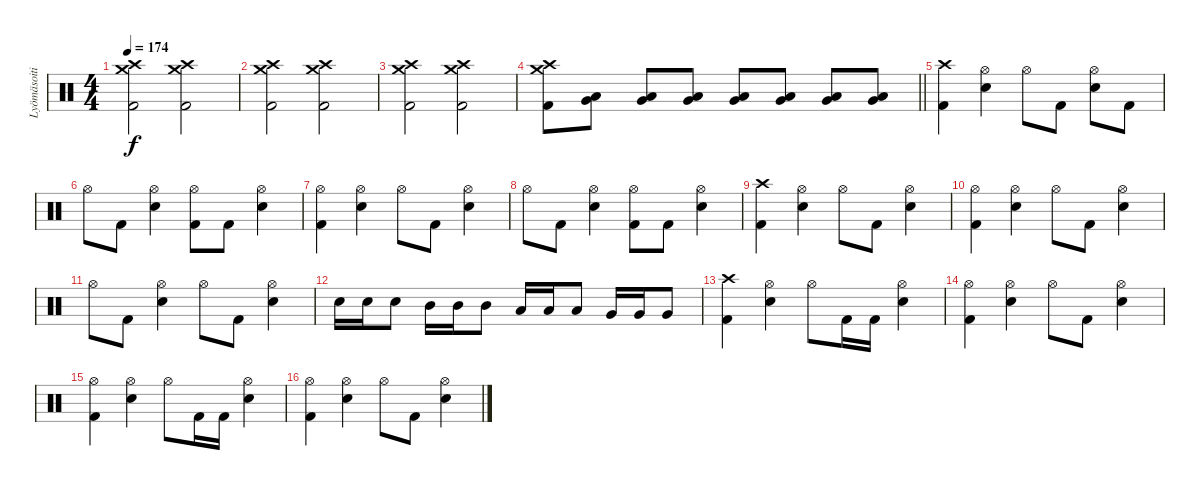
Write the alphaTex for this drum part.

\track ("Lyömäsoitin" "Lyömäsoiti") {instrument percussion}
\staff {score}
\articulation defaults
\ts (4 4)
\section ("" "")
\tempo 174
\clef neutral
\ks c
("Crash medium (hit)" "Crash high (hit)" "Kick (hit) 2").2{dy f} ("Crash medium (hit)" "Crash high (hit)" "Kick (hit) 2").2 |
("Crash medium (hit)" "Crash high (hit)" "Kick (hit) 2").2 ("Crash medium (hit)" "Crash high (hit)" "Kick (hit) 2").2 |
("Crash medium (hit)" "Crash high (hit)" "Kick (hit) 2").2 ("Crash medium (hit)" "Crash high (hit)" "Kick (hit) 2").2 |
\barLineRight lightlight
("Crash medium (hit)" "Crash high (hit)" "Kick (hit) 2").8 ("Low Tom (hit)" "Very Low Tom (hit)").8 ("Low Tom (hit)" "Very Low Tom (hit)").8 ("Low Tom (hit)" "Very Low Tom (hit)").8 ("Low Tom (hit)" "Very Low Tom (hit)").8 ("Low Tom (hit)" "Very Low Tom (hit)").8 ("Low Tom (hit)" "Very Low Tom (hit)").8 ("Low Tom (hit)" "Very Low Tom (hit)").8 |
\section ("" "")
("Crash high (hit)" "Kick (hit) 2").4 ("Hi-Hat (open)" "Electric Snare (hit)").4 "Hi-Hat (open)".8 "Kick (hit) 2".8 ("Hi-Hat (open)" "Electric Snare (hit)").8 "Kick (hit) 2".8 |
"Hi-Hat (open)".8 "Kick (hit) 2".8 ("Hi-Hat (open)" "Electric Snare (hit)").4 ("Hi-Hat (open)" "Kick (hit) 2").8 "Kick (hit) 2".8 ("Hi-Hat (open)" "Electric Snare (hit)").4 |
("Hi-Hat (open)" "Kick (hit) 2").4 ("Hi-Hat (open)" "Electric Snare (hit)").4 "Hi-Hat (open)".8 "Kick (hit) 2".8 ("Hi-Hat (open)" "Electric Snare (hit)").4 |
"Hi-Hat (open)".8 "Kick (hit) 2".8 ("Hi-Hat (open)" "Electric Snare (hit)").4 ("Hi-Hat (open)" "Kick (hit) 2").8 "Kick (hit) 2".8 ("Hi-Hat (open)" "Electric Snare (hit)").4 |
("Crash high (hit)" "Kick (hit) 2").4 ("Hi-Hat (open)" "Electric Snare (hit)").4 "Hi-Hat (open)".8 "Kick (hit) 2".8 ("Hi-Hat (open)" "Electric Snare (hit)").4 |
("Hi-Hat (open)" "Kick (hit) 2").4 ("Hi-Hat (open)" "Electric Snare (hit)").4 "Hi-Hat (open)".8 "Kick (hit) 2".8 ("Hi-Hat (open)" "Electric Snare (hit)").4 |
"Hi-Hat (open)".8 "Kick (hit) 2".8 ("Hi-Hat (open)" "Electric Snare (hit)").4 "Hi-Hat (open)".8 "Kick (hit) 2".8 ("Hi-Hat (open)" "Electric Snare (hit)").4 |
"Electric Snare (hit)".16 "Electric Snare (hit)".16 "Electric Snare (hit)".8 "Mid Tom (hit)".16 "Mid Tom (hit)".16 "Mid Tom (hit)".8 "Low Tom (hit)".16 "Low Tom (hit)".16 "Low Tom (hit)".8 "Very Low Tom (hit)".16 "Very Low Tom (hit)".16 "Very Low Tom (hit)".8 |
("Crash high (hit)" "Kick (hit) 2").4 ("Hi-Hat (open)" "Electric Snare (hit)").4 "Hi-Hat (open)".8 "Kick (hit) 2".16 "Kick (hit) 2".16 ("Hi-Hat (open)" "Electric Snare (hit)").4 |
("Hi-Hat (open)" "Kick (hit) 2").4 ("Hi-Hat (open)" "Electric Snare (hit)").4 "Hi-Hat (open)".8 "Kick (hit) 2".8 ("Hi-Hat (open)" "Electric Snare (hit)").4 |
("Hi-Hat (open)" "Kick (hit) 2").4 ("Hi-Hat (open)" "Electric Snare (hit)").4 "Hi-Hat (open)".8 "Kick (hit) 2".16 "Kick (hit) 2".16 ("Hi-Hat (open)" "Electric Snare (hit)").4 |
("Hi-Hat (open)" "Kick (hit) 2").4 ("Hi-Hat (open)" "Electric Snare (hit)").4 "Hi-Hat (open)".8 "Kick (hit) 2".8 ("Hi-Hat (open)" "Electric Snare (hit)").4
